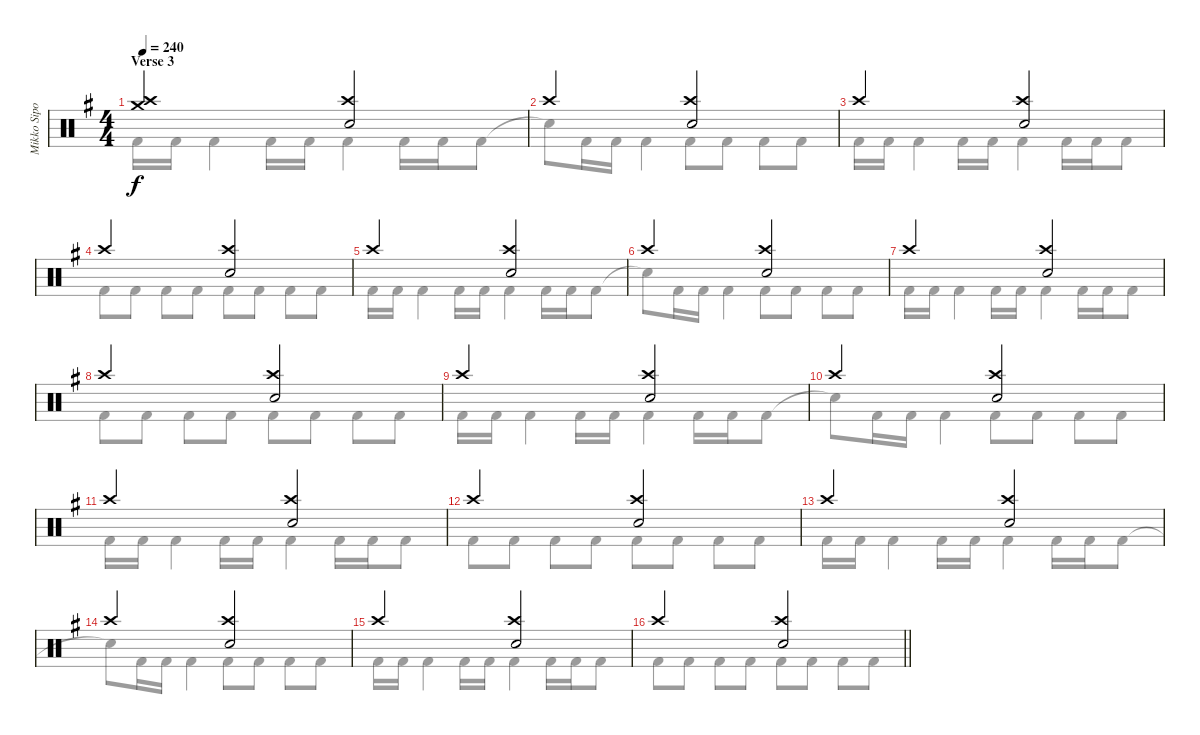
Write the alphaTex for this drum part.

\track ("Mikko Sipola (drums)" "Mikko Sipo") {instrument percussion}
\staff {score}
\articulation defaults
\voice
\ts (4 4)
\section ("" "Verse 3")
\tempo 240
\clef neutral
\ks eminor
("Crash medium (hit)" "Crash high (hit)").2{dy f} ("Crash high (hit)" "Electric Snare (hit)").2 |
"Crash high (hit)".2 ("Electric Snare (hit)" "Crash high (hit)").2 |
"Crash high (hit)".2 ("Electric Snare (hit)" "Crash high (hit)").2 |
"Crash high (hit)".2 ("Electric Snare (hit)" "Crash high (hit)").2 |
"Crash high (hit)".2 ("Electric Snare (hit)" "Crash high (hit)").2 |
"Crash high (hit)".2 ("Electric Snare (hit)" "Crash high (hit)").2 |
"Crash high (hit)".2 ("Electric Snare (hit)" "Crash high (hit)").2 |
"Crash high (hit)".2 ("Electric Snare (hit)" "Crash high (hit)").2 |
"Crash high (hit)".2 ("Electric Snare (hit)" "Crash high (hit)").2 |
"Crash high (hit)".2 ("Electric Snare (hit)" "Crash high (hit)").2 |
"Crash high (hit)".2 ("Electric Snare (hit)" "Crash high (hit)").2 |
"Crash high (hit)".2 ("Electric Snare (hit)" "Crash high (hit)").2 |
"Crash high (hit)".2 ("Electric Snare (hit)" "Crash high (hit)").2 |
"Crash high (hit)".2 ("Electric Snare (hit)" "Crash high (hit)").2 |
"Crash high (hit)".2 ("Electric Snare (hit)" "Crash high (hit)").2 |
\barLineRight lightlight "Crash high (hit)".2
("Electric Snare (hit)" "Crash high (hit)").2
\voice
\clef neutral
\ottava regular
\simile none
\ks eminor "Kick (hit) 2".16{dy f} "Kick (hit) 2".16 "Kick (hit) 2".4 "Kick (hit) 2".16 "Kick (hit) 2".16 "Kick (hit) 2".4 "Kick (hit) 2".16 "Kick (hit) 2".16 "Kick (hit) 2".8
|
"Snare (hit)"{t}.8 "Kick (hit) 2".16 "Kick (hit) 2".16 "Kick (hit) 2".4 "Kick (hit) 2".8 "Kick (hit) 2".8 "Kick (hit) 2".8 "Kick (hit) 2".8 |
"Kick (hit) 2".16 "Kick (hit) 2".16 "Kick (hit) 2".4 "Kick (hit) 2".16 "Kick (hit) 2".16 "Kick (hit) 2".4 "Kick (hit) 2".16 "Kick (hit) 2".16 "Kick (hit) 2".8 |
"Kick (hit) 2".8 "Kick (hit) 2".8 "Kick (hit) 2".8 "Kick (hit) 2".8 "Kick (hit) 2".8 "Kick (hit) 2".8 "Kick (hit) 2".8 "Kick (hit) 2".8 |
"Kick (hit) 2".16 "Kick (hit) 2".16 "Kick (hit) 2".4 "Kick (hit) 2".16 "Kick (hit) 2".16 "Kick (hit) 2".4 "Kick (hit) 2".16 "Kick (hit) 2".16 "Kick (hit) 2".8 |
"Snare (hit)"{t}.8 "Kick (hit) 2".16 "Kick (hit) 2".16 "Kick (hit) 2".4 "Kick (hit) 2".8 "Kick (hit) 2".8 "Kick (hit) 2".8 "Kick (hit) 2".8 |
"Kick (hit) 2".16 "Kick (hit) 2".16 "Kick (hit) 2".4 "Kick (hit) 2".16 "Kick (hit) 2".16 "Kick (hit) 2".4 "Kick (hit) 2".16 "Kick (hit) 2".16 "Kick (hit) 2".8 |
"Kick (hit) 2".8 "Kick (hit) 2".8 "Kick (hit) 2".8 "Kick (hit) 2".8 "Kick (hit) 2".8 "Kick (hit) 2".8 "Kick (hit) 2".8 "Kick (hit) 2".8 |
"Kick (hit) 2".16 "Kick (hit) 2".16 "Kick (hit) 2".4 "Kick (hit) 2".16 "Kick (hit) 2".16 "Kick (hit) 2".4 "Kick (hit) 2".16 "Kick (hit) 2".16 "Kick (hit) 2".8 |
"Snare (hit)"{t}.8 "Kick (hit) 2".16 "Kick (hit) 2".16 "Kick (hit) 2".4 "Kick (hit) 2".8 "Kick (hit) 2".8 "Kick (hit) 2".8 "Kick (hit) 2".8 |
"Kick (hit) 2".16 "Kick (hit) 2".16 "Kick (hit) 2".4 "Kick (hit) 2".16 "Kick (hit) 2".16 "Kick (hit) 2".4 "Kick (hit) 2".16 "Kick (hit) 2".16 "Kick (hit) 2".8 |
"Kick (hit) 2".8 "Kick (hit) 2".8 "Kick (hit) 2".8 "Kick (hit) 2".8 "Kick (hit) 2".8 "Kick (hit) 2".8 "Kick (hit) 2".8 "Kick (hit) 2".8 |
"Kick (hit) 2".16 "Kick (hit) 2".16 "Kick (hit) 2".4 "Kick (hit) 2".16 "Kick (hit) 2".16 "Kick (hit) 2".4 "Kick (hit) 2".16 "Kick (hit) 2".16 "Kick (hit) 2".8 |
"Snare (hit)"{t}.8 "Kick (hit) 2".16 "Kick (hit) 2".16 "Kick (hit) 2".4 "Kick (hit) 2".8 "Kick (hit) 2".8 "Kick (hit) 2".8 "Kick (hit) 2".8 |
"Kick (hit) 2".16 "Kick (hit) 2".16 "Kick (hit) 2".4 "Kick (hit) 2".16 "Kick (hit) 2".16 "Kick (hit) 2".4 "Kick (hit) 2".16 "Kick (hit) 2".16 "Kick (hit) 2".8 |
\barLineRight lightlight "Kick (hit) 2".8 "Kick (hit) 2".8 "Kick (hit) 2".8 "Kick (hit) 2".8 "Kick (hit) 2".8 "Kick (hit) 2".8 "Kick (hit) 2".8 "Kick (hit) 2".8
